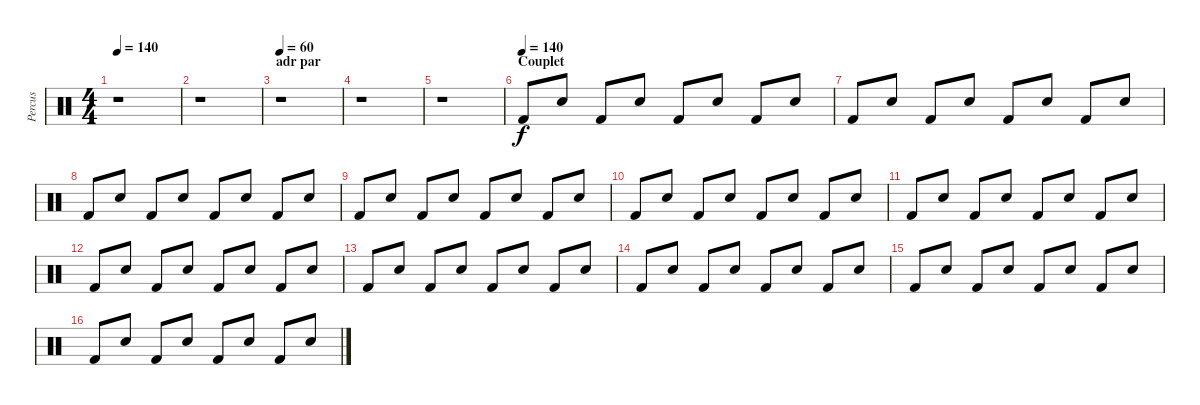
\track ("Percus" "Percus") {instrument percussion}
\staff {score}
\articulation defaults
\ts (4 4)
\tempo 140
\clef neutral
\ks c
r.1{dy f} |
r.1 |
\section ("" "adr par")
\tempo 60
r.1 |
r.1 |
r.1 |
\section ("" "Couplet")
\tempo (140)
"Kick (hit) 2".8 "Snare (hit) 2".8 "Kick (hit) 2".8 "Snare (hit) 2".8 "Kick (hit) 2".8 "Snare (hit) 2".8 "Kick (hit) 2".8 "Snare (hit) 2".8 |
"Kick (hit) 2".8 "Snare (hit) 2".8 "Kick (hit) 2".8 "Snare (hit) 2".8 "Kick (hit) 2".8 "Snare (hit) 2".8 "Kick (hit) 2".8 "Snare (hit) 2".8 |
"Kick (hit) 2".8 "Snare (hit) 2".8 "Kick (hit) 2".8 "Snare (hit) 2".8 "Kick (hit) 2".8 "Snare (hit) 2".8 "Kick (hit) 2".8 "Snare (hit) 2".8 |
"Kick (hit) 2".8 "Snare (hit) 2".8 "Kick (hit) 2".8 "Snare (hit) 2".8 "Kick (hit) 2".8 "Snare (hit) 2".8 "Kick (hit) 2".8 "Snare (hit) 2".8 |
"Kick (hit) 2".8 "Snare (hit) 2".8 "Kick (hit) 2".8 "Snare (hit) 2".8 "Kick (hit) 2".8 "Snare (hit) 2".8 "Kick (hit) 2".8 "Snare (hit) 2".8 |
"Kick (hit) 2".8 "Snare (hit) 2".8 "Kick (hit) 2".8 "Snare (hit) 2".8 "Kick (hit) 2".8 "Snare (hit) 2".8 "Kick (hit) 2".8 "Snare (hit) 2".8 |
"Kick (hit) 2".8 "Snare (hit) 2".8 "Kick (hit) 2".8 "Snare (hit) 2".8 "Kick (hit) 2".8 "Snare (hit) 2".8 "Kick (hit) 2".8 "Snare (hit) 2".8 |
"Kick (hit) 2".8 "Snare (hit) 2".8 "Kick (hit) 2".8 "Snare (hit) 2".8 "Kick (hit) 2".8 "Snare (hit) 2".8 "Kick (hit) 2".8 "Snare (hit) 2".8 |
"Kick (hit) 2".8 "Snare (hit) 2".8 "Kick (hit) 2".8 "Snare (hit) 2".8 "Kick (hit) 2".8 "Snare (hit) 2".8 "Kick (hit) 2".8 "Snare (hit) 2".8 |
"Kick (hit) 2".8 "Snare (hit) 2".8 "Kick (hit) 2".8 "Snare (hit) 2".8 "Kick (hit) 2".8 "Snare (hit) 2".8 "Kick (hit) 2".8 "Snare (hit) 2".8 |
"Kick (hit) 2".8 "Snare (hit) 2".8 "Kick (hit) 2".8 "Snare (hit) 2".8 "Kick (hit) 2".8 "Snare (hit) 2".8 "Kick (hit) 2".8 "Snare (hit) 2".8
